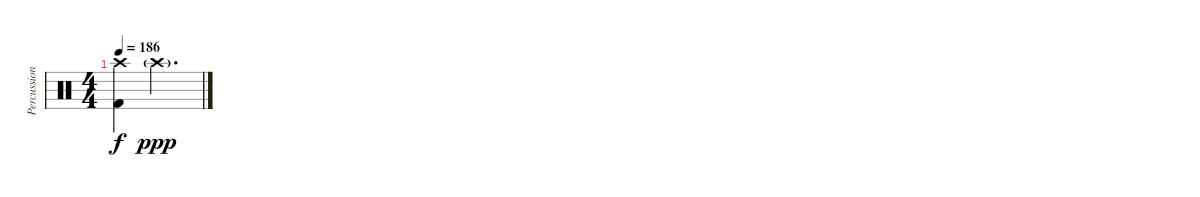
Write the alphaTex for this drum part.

\track ("Percussion" "Percussion") {instrument percussion}
\staff {score}
\articulation defaults
\ts (4 4)
\tempo 186
\clef neutral
\ks c
("Crash high (hit)" "Kick (hit) 2").4{dy f} "Crash high (hit)"{g}.2{d dy ppp}
